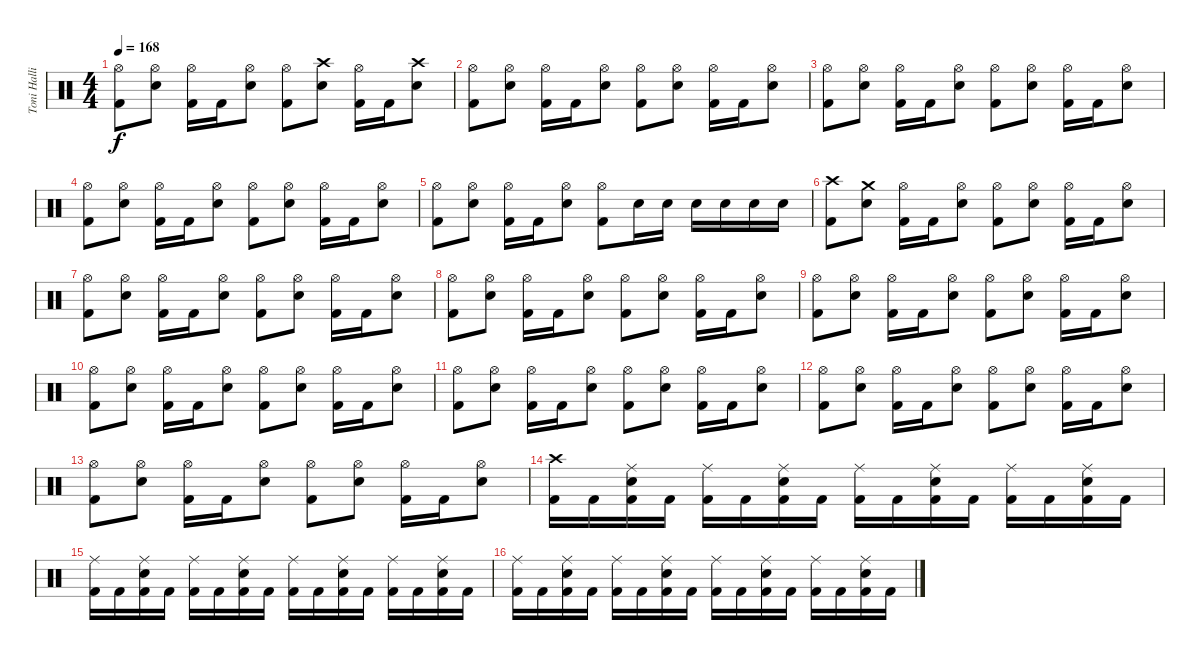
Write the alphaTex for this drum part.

\track ("Toni Hallio" "Toni Halli") {instrument percussion}
\staff {score}
\articulation defaults
\ts (4 4)
\tempo 168
\clef neutral
\ks c
("Hi-Hat (open)" "Kick (hit) 2").8{dy f} ("Hi-Hat (open)" "Snare (hit) 2").8 ("Hi-Hat (open)" "Kick (hit) 2").16 "Kick (hit) 2".16 ("Hi-Hat (open)" "Snare (hit) 2").8 ("Hi-Hat (open)" "Kick (hit) 2").8 ("Crash high (hit)" "Snare (hit) 2").8 ("Hi-Hat (open)" "Kick (hit) 2").16 "Kick (hit) 2".16 ("Crash high (hit)" "Snare (hit) 2").8 |
("Hi-Hat (open)" "Kick (hit) 2").8 ("Hi-Hat (open)" "Snare (hit) 2").8 ("Hi-Hat (open)" "Kick (hit) 2").16 "Kick (hit) 2".16 ("Hi-Hat (open)" "Snare (hit) 2").8 ("Hi-Hat (open)" "Kick (hit) 2").8 ("Hi-Hat (open)" "Snare (hit) 2").8 ("Hi-Hat (open)" "Kick (hit) 2").16 "Kick (hit) 2".16 ("Hi-Hat (open)" "Snare (hit) 2").8 |
("Hi-Hat (open)" "Kick (hit) 2").8 ("Hi-Hat (open)" "Snare (hit) 2").8 ("Hi-Hat (open)" "Kick (hit) 2").16 "Kick (hit) 2".16 ("Hi-Hat (open)" "Snare (hit) 2").8 ("Hi-Hat (open)" "Kick (hit) 2").8 ("Hi-Hat (open)" "Snare (hit) 2").8 ("Hi-Hat (open)" "Kick (hit) 2").16 "Kick (hit) 2".16 ("Hi-Hat (open)" "Snare (hit) 2").8 |
("Hi-Hat (open)" "Kick (hit) 2").8 ("Hi-Hat (open)" "Snare (hit) 2").8 ("Hi-Hat (open)" "Kick (hit) 2").16 "Kick (hit) 2".16 ("Hi-Hat (open)" "Snare (hit) 2").8 ("Hi-Hat (open)" "Kick (hit) 2").8 ("Hi-Hat (open)" "Snare (hit) 2").8 ("Hi-Hat (open)" "Kick (hit) 2").16 "Kick (hit) 2".16 ("Hi-Hat (open)" "Snare (hit) 2").8 |
("Hi-Hat (open)" "Kick (hit) 2").8 ("Hi-Hat (open)" "Snare (hit) 2").8 ("Hi-Hat (open)" "Kick (hit) 2").16 "Kick (hit) 2".16 ("Hi-Hat (open)" "Snare (hit) 2").8 ("Hi-Hat (open)" "Kick (hit) 2").8 "Snare (hit) 2".16 "Snare (hit) 2".16 "Snare (hit) 2".16 "Snare (hit) 2".16 "Snare (hit) 2".16 "Snare (hit) 2".16 |
("Crash high (hit)" "Kick (hit) 2").8 ("Crash medium (hit)" "Snare (hit) 2").8 ("Hi-Hat (open)" "Kick (hit) 2").16 "Kick (hit) 2".16 ("Hi-Hat (open)" "Snare (hit) 2").8 ("Hi-Hat (open)" "Kick (hit) 2").8 ("Hi-Hat (open)" "Snare (hit) 2").8 ("Hi-Hat (open)" "Kick (hit) 2").16 "Kick (hit) 2".16 ("Hi-Hat (open)" "Snare (hit) 2").8 |
("Hi-Hat (open)" "Kick (hit) 2").8 ("Hi-Hat (open)" "Snare (hit) 2").8 ("Hi-Hat (open)" "Kick (hit) 2").16 "Kick (hit) 2".16 ("Hi-Hat (open)" "Snare (hit) 2").8 ("Hi-Hat (open)" "Kick (hit) 2").8 ("Hi-Hat (open)" "Snare (hit) 2").8 ("Hi-Hat (open)" "Kick (hit) 2").16 "Kick (hit) 2".16 ("Hi-Hat (open)" "Snare (hit) 2").8 |
("Hi-Hat (open)" "Kick (hit) 2").8 ("Hi-Hat (open)" "Snare (hit) 2").8 ("Hi-Hat (open)" "Kick (hit) 2").16 "Kick (hit) 2".16 ("Hi-Hat (open)" "Snare (hit) 2").8 ("Hi-Hat (open)" "Kick (hit) 2").8 ("Hi-Hat (open)" "Snare (hit) 2").8 ("Hi-Hat (open)" "Kick (hit) 2").16 "Kick (hit) 2".16 ("Hi-Hat (open)" "Snare (hit) 2").8 |
("Hi-Hat (open)" "Kick (hit) 2").8 ("Hi-Hat (open)" "Snare (hit) 2").8 ("Hi-Hat (open)" "Kick (hit) 2").16 "Kick (hit) 2".16 ("Hi-Hat (open)" "Snare (hit) 2").8 ("Hi-Hat (open)" "Kick (hit) 2").8 ("Hi-Hat (open)" "Snare (hit) 2").8 ("Hi-Hat (open)" "Kick (hit) 2").16 "Kick (hit) 2".16 ("Hi-Hat (open)" "Snare (hit) 2").8 |
("Hi-Hat (open)" "Kick (hit) 2").8 ("Hi-Hat (open)" "Snare (hit) 2").8 ("Hi-Hat (open)" "Kick (hit) 2").16 "Kick (hit) 2".16 ("Hi-Hat (open)" "Snare (hit) 2").8 ("Hi-Hat (open)" "Kick (hit) 2").8 ("Hi-Hat (open)" "Snare (hit) 2").8 ("Hi-Hat (open)" "Kick (hit) 2").16 "Kick (hit) 2".16 ("Hi-Hat (open)" "Snare (hit) 2").8 |
("Hi-Hat (open)" "Kick (hit) 2").8 ("Hi-Hat (open)" "Snare (hit) 2").8 ("Hi-Hat (open)" "Kick (hit) 2").16 "Kick (hit) 2".16 ("Hi-Hat (open)" "Snare (hit) 2").8 ("Hi-Hat (open)" "Kick (hit) 2").8 ("Hi-Hat (open)" "Snare (hit) 2").8 ("Hi-Hat (open)" "Kick (hit) 2").16 "Kick (hit) 2".16 ("Hi-Hat (open)" "Snare (hit) 2").8 |
("Hi-Hat (open)" "Kick (hit) 2").8 ("Hi-Hat (open)" "Snare (hit) 2").8 ("Hi-Hat (open)" "Kick (hit) 2").16 "Kick (hit) 2".16 ("Hi-Hat (open)" "Snare (hit) 2").8 ("Hi-Hat (open)" "Kick (hit) 2").8 ("Hi-Hat (open)" "Snare (hit) 2").8 ("Hi-Hat (open)" "Kick (hit) 2").16 "Kick (hit) 2".16 ("Hi-Hat (open)" "Snare (hit) 2").8 |
("Hi-Hat (open)" "Kick (hit) 2").8 ("Hi-Hat (open)" "Snare (hit) 2").8 ("Hi-Hat (open)" "Kick (hit) 2").16 "Kick (hit) 2".16 ("Hi-Hat (open)" "Snare (hit) 2").8 ("Hi-Hat (open)" "Kick (hit) 2").8 ("Hi-Hat (open)" "Snare (hit) 2").8 ("Hi-Hat (open)" "Kick (hit) 2").16 "Kick (hit) 2".16 ("Hi-Hat (open)" "Snare (hit) 2").8 |
("Crash high (hit)" "Kick (hit) 2").16 "Kick (hit) 2".16 ("Ride (middle)" "Snare (hit) 2" "Kick (hit) 2").16 "Kick (hit) 2".16 ("Ride (middle)" "Kick (hit) 2").16 "Kick (hit) 2".16 ("Ride (middle)" "Snare (hit) 2" "Kick (hit) 2").16 "Kick (hit) 2".16 ("Ride (middle)" "Kick (hit) 2").16 "Kick (hit) 2".16 ("Ride (middle)" "Snare (hit) 2" "Kick (hit) 2").16 "Kick (hit) 2".16 ("Ride (middle)" "Kick (hit) 2").16 "Kick (hit) 2".16 ("Ride (middle)" "Snare (hit) 2" "Kick (hit) 2").16 "Kick (hit) 2".16 |
("Ride (middle)" "Kick (hit) 2").16 "Kick (hit) 2".16 ("Ride (middle)" "Snare (hit) 2" "Kick (hit) 2").16 "Kick (hit) 2".16 ("Ride (middle)" "Kick (hit) 2").16 "Kick (hit) 2".16 ("Ride (middle)" "Snare (hit) 2" "Kick (hit) 2").16 "Kick (hit) 2".16 ("Ride (middle)" "Kick (hit) 2").16 "Kick (hit) 2".16 ("Ride (middle)" "Snare (hit) 2" "Kick (hit) 2").16 "Kick (hit) 2".16 ("Ride (middle)" "Kick (hit) 2").16 "Kick (hit) 2".16 ("Ride (middle)" "Snare (hit) 2" "Kick (hit) 2").16 "Kick (hit) 2".16 |
("Ride (middle)" "Kick (hit) 2").16 "Kick (hit) 2".16 ("Ride (middle)" "Snare (hit) 2" "Kick (hit) 2").16 "Kick (hit) 2".16 ("Ride (middle)" "Kick (hit) 2").16 "Kick (hit) 2".16 ("Ride (middle)" "Snare (hit) 2" "Kick (hit) 2").16 "Kick (hit) 2".16 ("Ride (middle)" "Kick (hit) 2").16 "Kick (hit) 2".16 ("Ride (middle)" "Snare (hit) 2" "Kick (hit) 2").16 "Kick (hit) 2".16 ("Ride (middle)" "Kick (hit) 2").16 "Kick (hit) 2".16 ("Ride (middle)" "Snare (hit) 2" "Kick (hit) 2").16 "Kick (hit) 2".16
